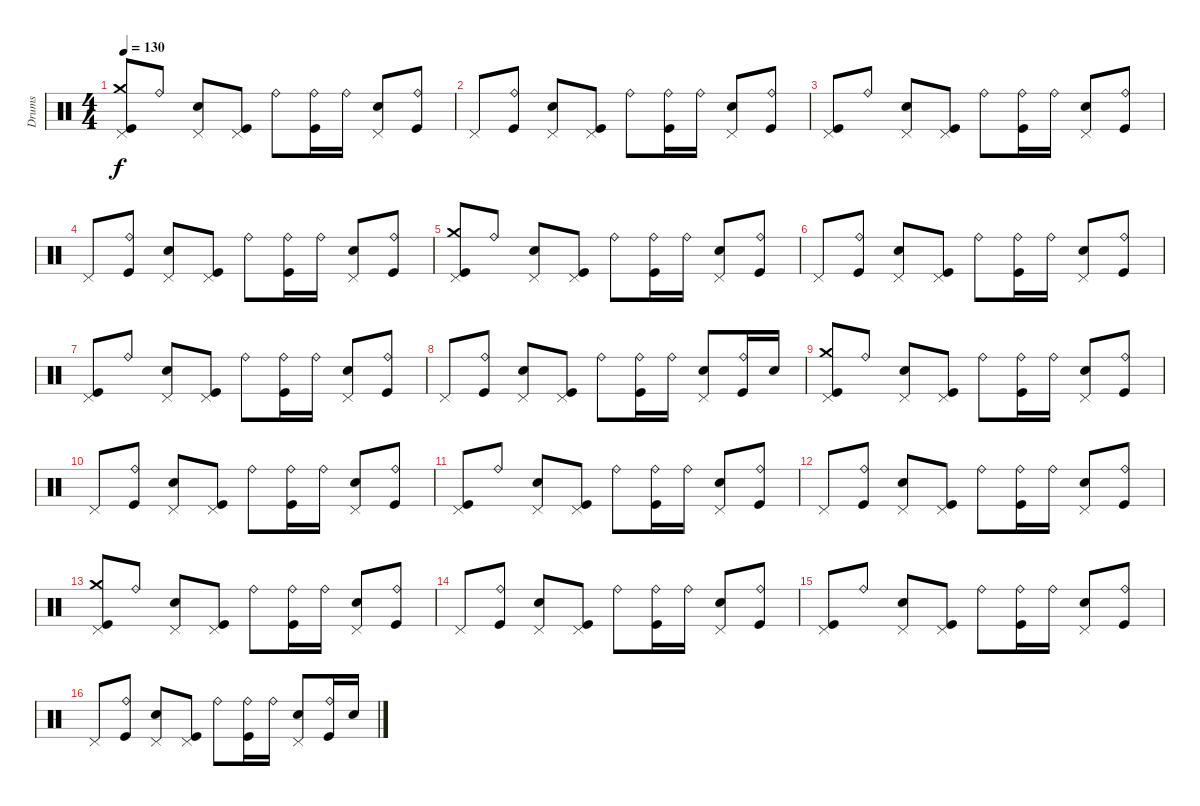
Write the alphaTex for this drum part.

\track ("Drums" "Drums") {instrument percussion}
\staff {score}
\articulation defaults
\ts (4 4)
\tempo 130
\clef neutral
\ks c
("Kick (hit)" "Crash medium (hit)" "Pedal Hi-Hat (hit)").8{dy f} "Ride (bell)".8 ("Electric Snare (hit)" "Pedal Hi-Hat (hit)").8 ("Kick (hit)" "Pedal Hi-Hat (hit)").8 "Ride (bell)".8 ("Kick (hit)" "Ride (bell)").16 "Ride (bell)".16 ("Electric Snare (hit)" "Pedal Hi-Hat (hit)").8 ("Kick (hit)" "Ride (bell)").8 |
"Pedal Hi-Hat (hit)".8 ("Kick (hit)" "Ride (bell)").8 ("Electric Snare (hit)" "Pedal Hi-Hat (hit)").8 ("Kick (hit)" "Pedal Hi-Hat (hit)").8 "Ride (bell)".8 ("Kick (hit)" "Ride (bell)").16 "Ride (bell)".16 ("Electric Snare (hit)" "Pedal Hi-Hat (hit)").8 ("Kick (hit)" "Ride (bell)").8 |
("Kick (hit)" "Pedal Hi-Hat (hit)").8 "Ride (bell)".8 ("Electric Snare (hit)" "Pedal Hi-Hat (hit)").8 ("Kick (hit)" "Pedal Hi-Hat (hit)").8 "Ride (bell)".8 ("Kick (hit)" "Ride (bell)").16 "Ride (bell)".16 ("Electric Snare (hit)" "Pedal Hi-Hat (hit)").8 ("Kick (hit)" "Ride (bell)").8 |
"Pedal Hi-Hat (hit)".8 ("Kick (hit)" "Ride (bell)").8 ("Electric Snare (hit)" "Pedal Hi-Hat (hit)").8 ("Kick (hit)" "Pedal Hi-Hat (hit)").8 "Ride (bell)".8 ("Kick (hit)" "Ride (bell)").16 "Ride (bell)".16 ("Electric Snare (hit)" "Pedal Hi-Hat (hit)").8 ("Kick (hit)" "Ride (bell)").8 |
("Kick (hit)" "Crash medium (hit)" "Pedal Hi-Hat (hit)").8 "Ride (bell)".8 ("Electric Snare (hit)" "Pedal Hi-Hat (hit)").8 ("Kick (hit)" "Pedal Hi-Hat (hit)").8 "Ride (bell)".8 ("Kick (hit)" "Ride (bell)").16 "Ride (bell)".16 ("Electric Snare (hit)" "Pedal Hi-Hat (hit)").8 ("Kick (hit)" "Ride (bell)").8 |
"Pedal Hi-Hat (hit)".8 ("Kick (hit)" "Ride (bell)").8 ("Electric Snare (hit)" "Pedal Hi-Hat (hit)").8 ("Kick (hit)" "Pedal Hi-Hat (hit)").8 "Ride (bell)".8 ("Kick (hit)" "Ride (bell)").16 "Ride (bell)".16 ("Electric Snare (hit)" "Pedal Hi-Hat (hit)").8 ("Kick (hit)" "Ride (bell)").8 |
("Kick (hit)" "Pedal Hi-Hat (hit)").8 "Ride (bell)".8 ("Electric Snare (hit)" "Pedal Hi-Hat (hit)").8 ("Kick (hit)" "Pedal Hi-Hat (hit)").8 "Ride (bell)".8 ("Kick (hit)" "Ride (bell)").16 "Ride (bell)".16 ("Electric Snare (hit)" "Pedal Hi-Hat (hit)").8 ("Kick (hit)" "Ride (bell)").8 |
"Pedal Hi-Hat (hit)".8 ("Kick (hit)" "Ride (bell)").8 ("Electric Snare (hit)" "Pedal Hi-Hat (hit)").8 ("Kick (hit)" "Pedal Hi-Hat (hit)").8 "Ride (bell)".8 ("Kick (hit)" "Ride (bell)").16 "Ride (bell)".16 ("Electric Snare (hit)" "Pedal Hi-Hat (hit)").8 ("Kick (hit)" "Ride (bell)").16 "Electric Snare (hit)".16 |
("Kick (hit)" "Crash medium (hit)" "Pedal Hi-Hat (hit)").8 "Ride (bell)".8 ("Electric Snare (hit)" "Pedal Hi-Hat (hit)").8 ("Kick (hit)" "Pedal Hi-Hat (hit)").8 "Ride (bell)".8 ("Kick (hit)" "Ride (bell)").16 "Ride (bell)".16 ("Electric Snare (hit)" "Pedal Hi-Hat (hit)").8 ("Kick (hit)" "Ride (bell)").8 |
"Pedal Hi-Hat (hit)".8 ("Kick (hit)" "Ride (bell)").8 ("Electric Snare (hit)" "Pedal Hi-Hat (hit)").8 ("Kick (hit)" "Pedal Hi-Hat (hit)").8 "Ride (bell)".8 ("Kick (hit)" "Ride (bell)").16 "Ride (bell)".16 ("Electric Snare (hit)" "Pedal Hi-Hat (hit)").8 ("Kick (hit)" "Ride (bell)").8 |
("Kick (hit)" "Pedal Hi-Hat (hit)").8 "Ride (bell)".8 ("Electric Snare (hit)" "Pedal Hi-Hat (hit)").8 ("Kick (hit)" "Pedal Hi-Hat (hit)").8 "Ride (bell)".8 ("Kick (hit)" "Ride (bell)").16 "Ride (bell)".16 ("Electric Snare (hit)" "Pedal Hi-Hat (hit)").8 ("Kick (hit)" "Ride (bell)").8 |
"Pedal Hi-Hat (hit)".8 ("Kick (hit)" "Ride (bell)").8 ("Electric Snare (hit)" "Pedal Hi-Hat (hit)").8 ("Kick (hit)" "Pedal Hi-Hat (hit)").8 "Ride (bell)".8 ("Kick (hit)" "Ride (bell)").16 "Ride (bell)".16 ("Electric Snare (hit)" "Pedal Hi-Hat (hit)").8 ("Kick (hit)" "Ride (bell)").8 |
("Kick (hit)" "Crash medium (hit)" "Pedal Hi-Hat (hit)").8 "Ride (bell)".8 ("Electric Snare (hit)" "Pedal Hi-Hat (hit)").8 ("Kick (hit)" "Pedal Hi-Hat (hit)").8 "Ride (bell)".8 ("Kick (hit)" "Ride (bell)").16 "Ride (bell)".16 ("Electric Snare (hit)" "Pedal Hi-Hat (hit)").8 ("Kick (hit)" "Ride (bell)").8 |
"Pedal Hi-Hat (hit)".8 ("Kick (hit)" "Ride (bell)").8 ("Electric Snare (hit)" "Pedal Hi-Hat (hit)").8 ("Kick (hit)" "Pedal Hi-Hat (hit)").8 "Ride (bell)".8 ("Kick (hit)" "Ride (bell)").16 "Ride (bell)".16 ("Electric Snare (hit)" "Pedal Hi-Hat (hit)").8 ("Kick (hit)" "Ride (bell)").8 |
("Kick (hit)" "Pedal Hi-Hat (hit)").8 "Ride (bell)".8 ("Electric Snare (hit)" "Pedal Hi-Hat (hit)").8 ("Kick (hit)" "Pedal Hi-Hat (hit)").8 "Ride (bell)".8 ("Kick (hit)" "Ride (bell)").16 "Ride (bell)".16 ("Electric Snare (hit)" "Pedal Hi-Hat (hit)").8 ("Kick (hit)" "Ride (bell)").8 |
"Pedal Hi-Hat (hit)".8 ("Kick (hit)" "Ride (bell)").8 ("Electric Snare (hit)" "Pedal Hi-Hat (hit)").8 ("Kick (hit)" "Pedal Hi-Hat (hit)").8 "Ride (bell)".8 ("Kick (hit)" "Ride (bell)").16 "Ride (bell)".16 ("Electric Snare (hit)" "Pedal Hi-Hat (hit)").8 ("Kick (hit)" "Ride (bell)").16 "Electric Snare (hit)".16
